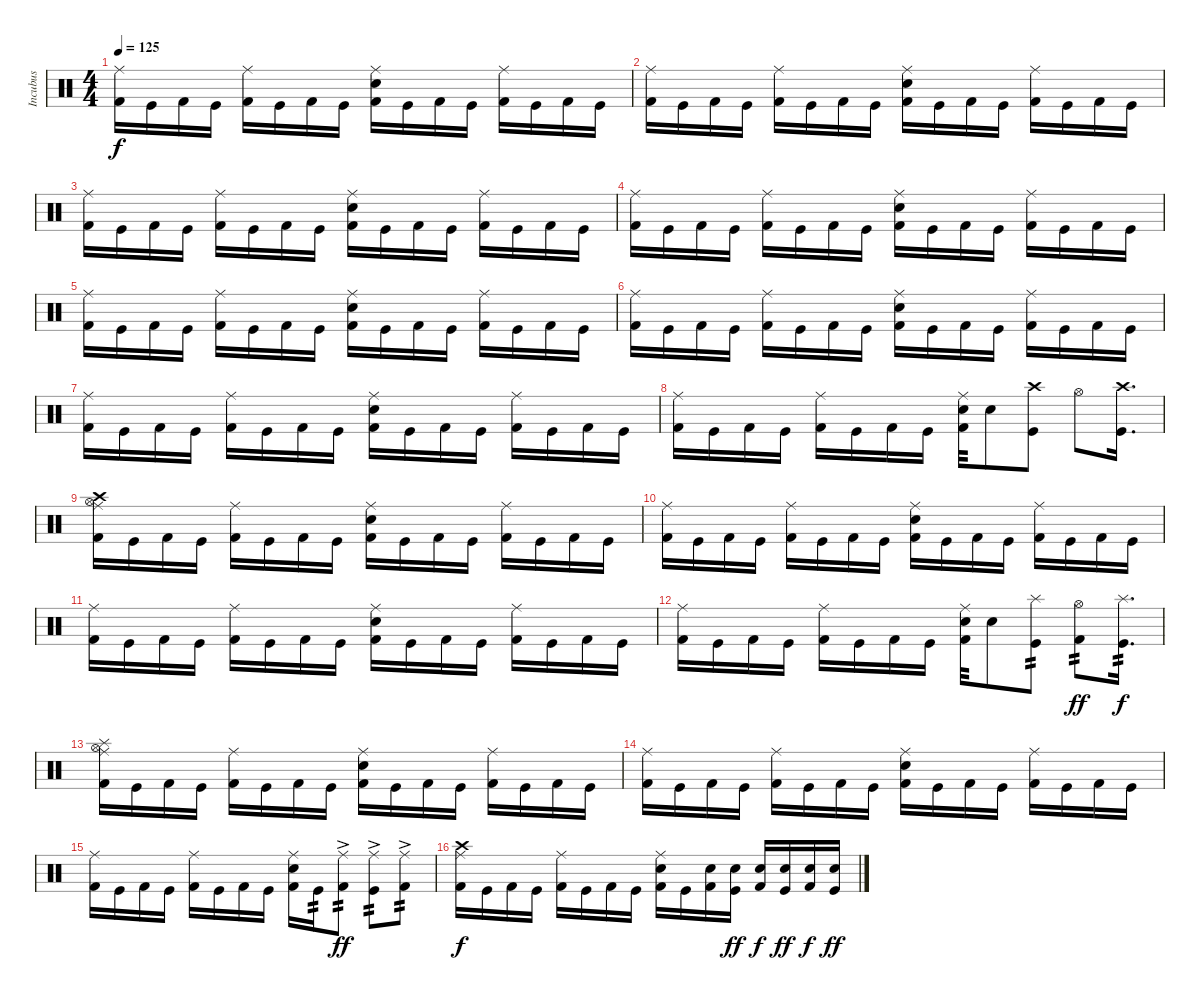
\track ("Incubus" "Incubus") {instrument percussion}
\staff {score}
\articulation defaults
\ts (4 4)
\tempo 125
\clef neutral
\ks c
("Ride (middle)" "Kick (hit) 2").16{dy f} "Kick (hit)".16 "Kick (hit) 2".16 "Kick (hit)".16 ("Ride (middle)" "Kick (hit) 2").16 "Kick (hit)".16 "Kick (hit) 2".16 "Kick (hit)".16 ("Ride (middle)" "Snare (hit) 2" "Kick (hit) 2").16 "Kick (hit)".16 "Kick (hit) 2".16 "Kick (hit)".16 ("Ride (middle)" "Kick (hit) 2").16 "Kick (hit)".16 "Kick (hit) 2".16 "Kick (hit)".16 |
("Ride (middle)" "Kick (hit) 2").16 "Kick (hit)".16 "Kick (hit) 2".16 "Kick (hit)".16 ("Ride (middle)" "Kick (hit) 2").16 "Kick (hit)".16 "Kick (hit) 2".16 "Kick (hit)".16 ("Ride (middle)" "Snare (hit) 2" "Kick (hit) 2").16 "Kick (hit)".16 "Kick (hit) 2".16 "Kick (hit)".16 ("Ride (middle)" "Kick (hit) 2").16 "Kick (hit)".16 "Kick (hit) 2".16 "Kick (hit)".16 |
("Ride (middle)" "Kick (hit) 2").16 "Kick (hit)".16 "Kick (hit) 2".16 "Kick (hit)".16 ("Ride (middle)" "Kick (hit) 2").16 "Kick (hit)".16 "Kick (hit) 2".16 "Kick (hit)".16 ("Ride (middle)" "Snare (hit) 2" "Kick (hit) 2").16 "Kick (hit)".16 "Kick (hit) 2".16 "Kick (hit)".16 ("Ride (middle)" "Kick (hit) 2").16 "Kick (hit)".16 "Kick (hit) 2".16 "Kick (hit)".16 |
("Ride (middle)" "Kick (hit) 2").16 "Kick (hit)".16 "Kick (hit) 2".16 "Kick (hit)".16 ("Ride (middle)" "Kick (hit) 2").16 "Kick (hit)".16 "Kick (hit) 2".16 "Kick (hit)".16 ("Ride (middle)" "Snare (hit) 2" "Kick (hit) 2").16 "Kick (hit)".16 "Kick (hit) 2".16 "Kick (hit)".16 ("Ride (middle)" "Kick (hit) 2").16 "Kick (hit)".16 "Kick (hit) 2".16 "Kick (hit)".16 |
("Ride (middle)" "Kick (hit) 2").16 "Kick (hit)".16 "Kick (hit) 2".16 "Kick (hit)".16 ("Ride (middle)" "Kick (hit) 2").16 "Kick (hit)".16 "Kick (hit) 2".16 "Kick (hit)".16 ("Ride (middle)" "Snare (hit) 2" "Kick (hit) 2").16 "Kick (hit)".16 "Kick (hit) 2".16 "Kick (hit)".16 ("Ride (middle)" "Kick (hit) 2").16 "Kick (hit)".16 "Kick (hit) 2".16 "Kick (hit)".16 |
("Ride (middle)" "Kick (hit) 2").16 "Kick (hit)".16 "Kick (hit) 2".16 "Kick (hit)".16 ("Ride (middle)" "Kick (hit) 2").16 "Kick (hit)".16 "Kick (hit) 2".16 "Kick (hit)".16 ("Ride (middle)" "Snare (hit) 2" "Kick (hit) 2").16 "Kick (hit)".16 "Kick (hit) 2".16 "Kick (hit)".16 ("Ride (middle)" "Kick (hit) 2").16 "Kick (hit)".16 "Kick (hit) 2".16 "Kick (hit)".16 |
("Ride (middle)" "Kick (hit) 2").16 "Kick (hit)".16 "Kick (hit) 2".16 "Kick (hit)".16 ("Ride (middle)" "Kick (hit) 2").16 "Kick (hit)".16 "Kick (hit) 2".16 "Kick (hit)".16 ("Ride (middle)" "Snare (hit) 2" "Kick (hit) 2").16 "Kick (hit)".16 "Kick (hit) 2".16 "Kick (hit)".16 ("Ride (middle)" "Kick (hit) 2").16 "Kick (hit)".16 "Kick (hit) 2".16 "Kick (hit)".16 |
("Ride (middle)" "Kick (hit) 2").16 "Kick (hit)".16 "Kick (hit) 2".16 "Kick (hit)".16 ("Ride (middle)" "Kick (hit) 2").16 "Kick (hit)".16 "Kick (hit) 2".16 "Kick (hit)".16 ("Ride (middle)" "Snare (hit) 2" "Kick (hit) 2").32 "Snare (hit) 2".8 ("Crash high (hit)" "Kick (hit)").8 "Hi-Hat (open)".8 ("Crash high (hit)" "Kick (hit)").16{d} |
("Crash high (hit)" "Hi-Hat (open)" "Ride (middle)" "Kick (hit) 2").16 "Kick (hit)".16 "Kick (hit) 2".16 "Kick (hit)".16 ("Ride (middle)" "Kick (hit) 2").16 "Kick (hit)".16 "Kick (hit) 2".16 "Kick (hit)".16 ("Ride (middle)" "Snare (hit) 2" "Kick (hit) 2").16 "Kick (hit)".16 "Kick (hit) 2".16 "Kick (hit)".16 ("Ride (middle)" "Kick (hit) 2").16 "Kick (hit)".16 "Kick (hit) 2".16 "Kick (hit)".16 |
("Ride (middle)" "Kick (hit) 2").16 "Kick (hit)".16 "Kick (hit) 2".16 "Kick (hit)".16 ("Ride (middle)" "Kick (hit) 2").16 "Kick (hit)".16 "Kick (hit) 2".16 "Kick (hit)".16 ("Ride (middle)" "Snare (hit) 2" "Kick (hit) 2").16 "Kick (hit)".16 "Kick (hit) 2".16 "Kick (hit)".16 ("Ride (middle)" "Kick (hit) 2").16 "Kick (hit)".16 "Kick (hit) 2".16 "Kick (hit)".16 |
("Ride (middle)" "Kick (hit) 2").16 "Kick (hit)".16 "Kick (hit) 2".16 "Kick (hit)".16 ("Ride (middle)" "Kick (hit) 2").16 "Kick (hit)".16 "Kick (hit) 2".16 "Kick (hit)".16 ("Ride (middle)" "Snare (hit) 2" "Kick (hit) 2").16 "Kick (hit)".16 "Kick (hit) 2".16 "Kick (hit)".16 ("Ride (middle)" "Kick (hit) 2").16 "Kick (hit)".16 "Kick (hit) 2".16 "Kick (hit)".16 |
("Ride (middle)" "Kick (hit) 2").16 "Kick (hit)".16 "Kick (hit) 2".16 "Kick (hit)".16 ("Ride (middle)" "Kick (hit) 2").16 "Kick (hit)".16 "Kick (hit) 2".16 "Kick (hit)".16 ("Ride (middle)" "Snare (hit) 2" "Kick (hit) 2").32 "Snare (hit) 2".8 ("Splash (hit)" "Kick (hit)").8{tp 2} ("Hi-Hat (open)" "Kick (hit) 2").8{tp 2 dy ff} ("Splash (hit)" "Kick (hit)").16{d tp 2 dy f} |
("Splash (hit)" "Hi-Hat (open)" "Ride (middle)" "Kick (hit) 2").16 "Kick (hit)".16 "Kick (hit) 2".16 "Kick (hit)".16 ("Ride (middle)" "Kick (hit) 2").16 "Kick (hit)".16 "Kick (hit) 2".16 "Kick (hit)".16 ("Ride (middle)" "Snare (hit) 2" "Kick (hit) 2").16 "Kick (hit)".16 "Kick (hit) 2".16 "Kick (hit)".16 ("Ride (middle)" "Kick (hit) 2").16 "Kick (hit)".16 "Kick (hit) 2".16 "Kick (hit)".16 |
("Ride (middle)" "Kick (hit) 2").16 "Kick (hit)".16 "Kick (hit) 2".16 "Kick (hit)".16 ("Ride (middle)" "Kick (hit) 2").16 "Kick (hit)".16 "Kick (hit) 2".16 "Kick (hit)".16 ("Ride (middle)" "Snare (hit) 2" "Kick (hit) 2").16 "Kick (hit)".16 "Kick (hit) 2".16 "Kick (hit)".16 ("Ride (middle)" "Kick (hit) 2").16 "Kick (hit)".16 "Kick (hit) 2".16 "Kick (hit)".16 |
("Ride (middle)" "Kick (hit) 2").16 "Kick (hit)".16 "Kick (hit) 2".16 "Kick (hit)".16 ("Ride (middle)" "Kick (hit) 2").16 "Kick (hit)".16 "Kick (hit) 2".16 "Kick (hit)".16 ("Ride (middle)" "Snare (hit) 2" "Kick (hit) 2").16 "Kick (hit)".16{tp 2} ("Ride (middle)"{ac} "Kick (hit) 2").8{tp 2 dy ff} ("Ride (middle)"{ac} "Kick (hit)").8{tp 2} ("Ride (middle)"{ac} "Kick (hit) 2").8{tp 2} |
("Crash high (hit)" "Ride (middle)" "Kick (hit) 2").16{dy f} "Kick (hit)".16 "Kick (hit) 2".16 "Kick (hit)".16 ("Ride (middle)" "Kick (hit) 2").16 "Kick (hit)".16 "Kick (hit) 2".16 "Kick (hit)".16 ("Ride (middle)" "Snare (hit) 2" "Kick (hit) 2").16 "Kick (hit)".16 ("Snare (hit) 2" "Kick (hit) 2").16 ("Snare (hit) 2" "Kick (hit)").16{dy ff} ("Snare (hit) 2" "Kick (hit) 2").16{dy f} ("Snare (hit) 2" "Kick (hit)").16{dy ff} ("Snare (hit) 2" "Kick (hit) 2").16{dy f} ("Snare (hit) 2" "Kick (hit)").16{dy ff}
